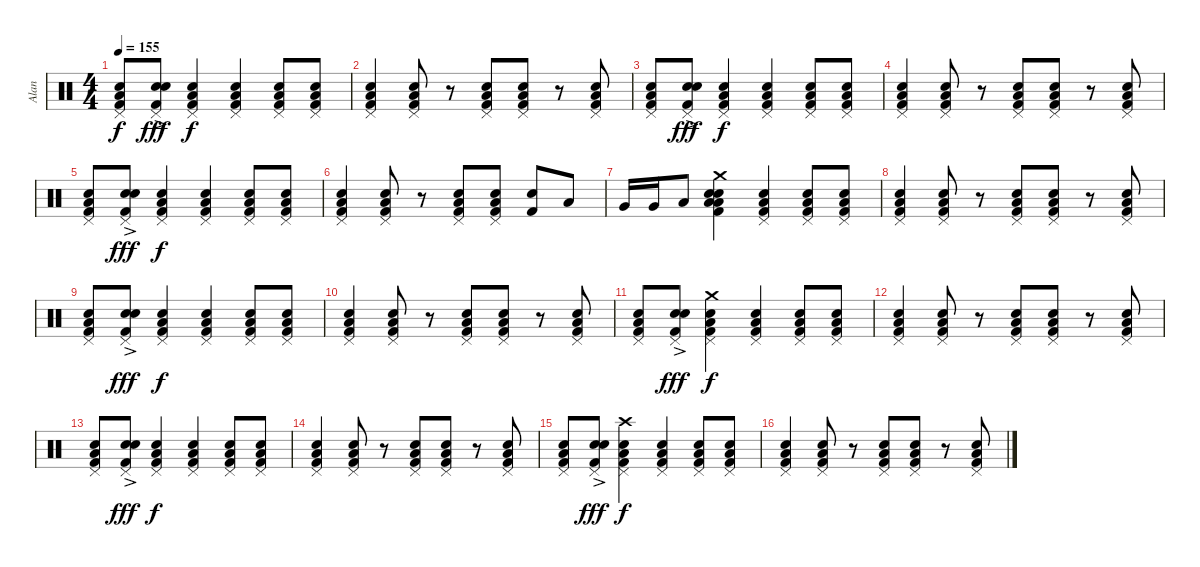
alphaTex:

\track ("Alan" "Alan") {instrument percussion}
\staff {score}
\articulation defaults
\ts (4 4)
\tempo 155
\clef neutral
\ks c
("Kick (hit) 2" "Low Floor Tom (hit)" "Snare (hit) 2" "Pedal Hi-Hat (hit)").8{dy f} ("Kick (hit) 2"{ac} "Snare (hit) 2" "Snare (hit) 2" "Pedal Hi-Hat (hit)").8{dy fff volume 16} ("Kick (hit) 2" "Low Floor Tom (hit)" "Snare (hit) 2" "Pedal Hi-Hat (hit)").4{dy f volume 11} ("Kick (hit) 2" "Low Floor Tom (hit)" "Snare (hit) 2" "Pedal Hi-Hat (hit)").4 ("Kick (hit) 2" "Low Floor Tom (hit)" "Snare (hit) 2" "Pedal Hi-Hat (hit)").8 ("Kick (hit) 2" "Low Floor Tom (hit)" "Snare (hit) 2" "Pedal Hi-Hat (hit)").8 |
("Kick (hit) 2" "Low Floor Tom (hit)" "Snare (hit) 2" "Pedal Hi-Hat (hit)").4 ("Kick (hit) 2" "Low Floor Tom (hit)" "Snare (hit) 2" "Pedal Hi-Hat (hit)").8 r.8 ("Kick (hit) 2" "Low Floor Tom (hit)" "Snare (hit) 2" "Pedal Hi-Hat (hit)").8 ("Kick (hit) 2" "Low Floor Tom (hit)" "Snare (hit) 2" "Pedal Hi-Hat (hit)").8 r.8 ("Kick (hit) 2" "Low Floor Tom (hit)" "Snare (hit) 2" "Pedal Hi-Hat (hit)").8 |
("Kick (hit) 2" "Low Floor Tom (hit)" "Snare (hit) 2" "Pedal Hi-Hat (hit)").8 ("Kick (hit) 2"{ac} "Snare (hit) 2" "Snare (hit) 2" "Pedal Hi-Hat (hit)").8{dy fff volume 16} ("Kick (hit) 2" "Low Floor Tom (hit)" "Snare (hit) 2" "Pedal Hi-Hat (hit)").4{dy f volume 11} ("Kick (hit) 2" "Low Floor Tom (hit)" "Snare (hit) 2" "Pedal Hi-Hat (hit)").4 ("Kick (hit) 2" "Low Floor Tom (hit)" "Snare (hit) 2" "Pedal Hi-Hat (hit)").8 ("Kick (hit) 2" "Low Floor Tom (hit)" "Snare (hit) 2" "Pedal Hi-Hat (hit)").8 |
("Kick (hit) 2" "Low Floor Tom (hit)" "Snare (hit) 2" "Pedal Hi-Hat (hit)").4 ("Kick (hit) 2" "Low Floor Tom (hit)" "Snare (hit) 2" "Pedal Hi-Hat (hit)").8 r.8 ("Kick (hit) 2" "Low Floor Tom (hit)" "Snare (hit) 2" "Pedal Hi-Hat (hit)").8 ("Kick (hit) 2" "Low Floor Tom (hit)" "Snare (hit) 2" "Pedal Hi-Hat (hit)").8 r.8 ("Kick (hit) 2" "Low Floor Tom (hit)" "Snare (hit) 2" "Pedal Hi-Hat (hit)").8 |
("Kick (hit) 2" "Low Floor Tom (hit)" "Snare (hit) 2" "Pedal Hi-Hat (hit)").8 ("Kick (hit) 2"{ac} "Snare (hit) 2" "Snare (hit) 2" "Pedal Hi-Hat (hit)").8{dy fff volume 16} ("Kick (hit) 2" "Low Floor Tom (hit)" "Snare (hit) 2" "Pedal Hi-Hat (hit)").4{dy f volume 11} ("Kick (hit) 2" "Low Floor Tom (hit)" "Snare (hit) 2" "Pedal Hi-Hat (hit)").4 ("Kick (hit) 2" "Low Floor Tom (hit)" "Snare (hit) 2" "Pedal Hi-Hat (hit)").8 ("Kick (hit) 2" "Low Floor Tom (hit)" "Snare (hit) 2" "Pedal Hi-Hat (hit)").8 |
("Kick (hit) 2" "Low Floor Tom (hit)" "Snare (hit) 2" "Pedal Hi-Hat (hit)").4 ("Kick (hit) 2" "Low Floor Tom (hit)" "Snare (hit) 2" "Pedal Hi-Hat (hit)").8 r.8 ("Kick (hit) 2" "Low Floor Tom (hit)" "Snare (hit) 2" "Pedal Hi-Hat (hit)").8 ("Kick (hit) 2" "Low Floor Tom (hit)" "Snare (hit) 2" "Pedal Hi-Hat (hit)").8 ("Kick (hit) 2" "Snare (hit) 2").8 "Low Tom (hit)".8 |
"Very Low Tom (hit)".16 "Very Low Tom (hit)".16 "Low Floor Tom (hit)".8 ("Kick (hit) 2" "Low Floor Tom (hit)" "Snare (hit) 2" "Snare (hit) 2" "Crash medium (hit)" "Low Floor Tom (hit)").4 ("Kick (hit) 2" "Low Floor Tom (hit)" "Snare (hit) 2" "Pedal Hi-Hat (hit)").4 ("Kick (hit) 2" "Low Floor Tom (hit)" "Snare (hit) 2" "Pedal Hi-Hat (hit)").8 ("Kick (hit) 2" "Low Floor Tom (hit)" "Snare (hit) 2" "Pedal Hi-Hat (hit)").8 |
("Kick (hit) 2" "Low Floor Tom (hit)" "Snare (hit) 2" "Pedal Hi-Hat (hit)").4 ("Kick (hit) 2" "Low Floor Tom (hit)" "Snare (hit) 2" "Pedal Hi-Hat (hit)").8 r.8 ("Kick (hit) 2" "Low Floor Tom (hit)" "Snare (hit) 2" "Pedal Hi-Hat (hit)").8 ("Kick (hit) 2" "Low Floor Tom (hit)" "Snare (hit) 2" "Pedal Hi-Hat (hit)").8 r.8 ("Kick (hit) 2" "Low Floor Tom (hit)" "Snare (hit) 2" "Pedal Hi-Hat (hit)").8 |
("Kick (hit) 2" "Low Floor Tom (hit)" "Snare (hit) 2" "Pedal Hi-Hat (hit)").8 ("Kick (hit) 2"{ac} "Snare (hit) 2" "Snare (hit) 2" "Pedal Hi-Hat (hit)").8{dy fff volume 16} ("Kick (hit) 2" "Low Floor Tom (hit)" "Snare (hit) 2" "Pedal Hi-Hat (hit)").4{dy f volume 11} ("Kick (hit) 2" "Low Floor Tom (hit)" "Snare (hit) 2" "Pedal Hi-Hat (hit)").4 ("Kick (hit) 2" "Low Floor Tom (hit)" "Snare (hit) 2" "Pedal Hi-Hat (hit)").8 ("Kick (hit) 2" "Low Floor Tom (hit)" "Snare (hit) 2" "Pedal Hi-Hat (hit)").8 |
("Kick (hit) 2" "Low Floor Tom (hit)" "Snare (hit) 2" "Pedal Hi-Hat (hit)").4 ("Kick (hit) 2" "Low Floor Tom (hit)" "Snare (hit) 2" "Pedal Hi-Hat (hit)").8 r.8 ("Kick (hit) 2" "Low Floor Tom (hit)" "Snare (hit) 2" "Pedal Hi-Hat (hit)").8 ("Kick (hit) 2" "Low Floor Tom (hit)" "Snare (hit) 2" "Pedal Hi-Hat (hit)").8 r.8 ("Kick (hit) 2" "Low Floor Tom (hit)" "Snare (hit) 2" "Pedal Hi-Hat (hit)").8 |
("Kick (hit) 2" "Low Floor Tom (hit)" "Snare (hit) 2" "Pedal Hi-Hat (hit)").8 ("Kick (hit) 2"{ac} "Snare (hit) 2" "Snare (hit) 2" "Pedal Hi-Hat (hit)").8{dy fff volume 16} ("Kick (hit) 2" "Low Floor Tom (hit)" "Snare (hit) 2" "Pedal Hi-Hat (hit)" "Crash medium (hit)").4{dy f volume 11} ("Kick (hit) 2" "Low Floor Tom (hit)" "Snare (hit) 2" "Pedal Hi-Hat (hit)").4 ("Kick (hit) 2" "Low Floor Tom (hit)" "Snare (hit) 2" "Pedal Hi-Hat (hit)").8 ("Kick (hit) 2" "Low Floor Tom (hit)" "Snare (hit) 2" "Pedal Hi-Hat (hit)").8 |
("Kick (hit) 2" "Low Floor Tom (hit)" "Snare (hit) 2" "Pedal Hi-Hat (hit)").4 ("Kick (hit) 2" "Low Floor Tom (hit)" "Snare (hit) 2" "Pedal Hi-Hat (hit)").8 r.8 ("Kick (hit) 2" "Low Floor Tom (hit)" "Snare (hit) 2" "Pedal Hi-Hat (hit)").8 ("Kick (hit) 2" "Low Floor Tom (hit)" "Snare (hit) 2" "Pedal Hi-Hat (hit)").8 r.8 ("Kick (hit) 2" "Low Floor Tom (hit)" "Snare (hit) 2" "Pedal Hi-Hat (hit)").8 |
("Kick (hit) 2" "Low Floor Tom (hit)" "Snare (hit) 2" "Pedal Hi-Hat (hit)").8 ("Kick (hit) 2"{ac} "Snare (hit) 2" "Snare (hit) 2" "Pedal Hi-Hat (hit)").8{dy fff volume 16} ("Kick (hit) 2" "Low Floor Tom (hit)" "Snare (hit) 2" "Pedal Hi-Hat (hit)").4{dy f volume 11} ("Kick (hit) 2" "Low Floor Tom (hit)" "Snare (hit) 2" "Pedal Hi-Hat (hit)").4 ("Kick (hit) 2" "Low Floor Tom (hit)" "Snare (hit) 2" "Pedal Hi-Hat (hit)").8 ("Kick (hit) 2" "Low Floor Tom (hit)" "Snare (hit) 2" "Pedal Hi-Hat (hit)").8 |
("Kick (hit) 2" "Low Floor Tom (hit)" "Snare (hit) 2" "Pedal Hi-Hat (hit)").4 ("Kick (hit) 2" "Low Floor Tom (hit)" "Snare (hit) 2" "Pedal Hi-Hat (hit)").8 r.8 ("Kick (hit) 2" "Low Floor Tom (hit)" "Snare (hit) 2" "Pedal Hi-Hat (hit)").8 ("Kick (hit) 2" "Low Floor Tom (hit)" "Snare (hit) 2" "Pedal Hi-Hat (hit)").8 r.8 ("Kick (hit) 2" "Low Floor Tom (hit)" "Snare (hit) 2" "Pedal Hi-Hat (hit)").8 |
("Kick (hit) 2" "Low Floor Tom (hit)" "Snare (hit) 2" "Pedal Hi-Hat (hit)").8 ("Kick (hit) 2"{ac} "Snare (hit) 2" "Snare (hit) 2" "Pedal Hi-Hat (hit)").8{dy fff volume 16} ("Kick (hit) 2" "Low Floor Tom (hit)" "Snare (hit) 2" "Pedal Hi-Hat (hit)" "Crash high (hit)").4{dy f volume 11} ("Kick (hit) 2" "Low Floor Tom (hit)" "Snare (hit) 2" "Pedal Hi-Hat (hit)").4 ("Kick (hit) 2" "Low Floor Tom (hit)" "Snare (hit) 2" "Pedal Hi-Hat (hit)").8 ("Kick (hit) 2" "Low Floor Tom (hit)" "Snare (hit) 2" "Pedal Hi-Hat (hit)").8 |
("Kick (hit) 2" "Low Floor Tom (hit)" "Snare (hit) 2" "Pedal Hi-Hat (hit)").4 ("Kick (hit) 2" "Low Floor Tom (hit)" "Snare (hit) 2" "Pedal Hi-Hat (hit)").8 r.8 ("Kick (hit) 2" "Low Floor Tom (hit)" "Snare (hit) 2" "Pedal Hi-Hat (hit)").8 ("Kick (hit) 2" "Low Floor Tom (hit)" "Snare (hit) 2" "Pedal Hi-Hat (hit)").8 r.8 ("Kick (hit) 2" "Low Floor Tom (hit)" "Snare (hit) 2" "Pedal Hi-Hat (hit)").8
